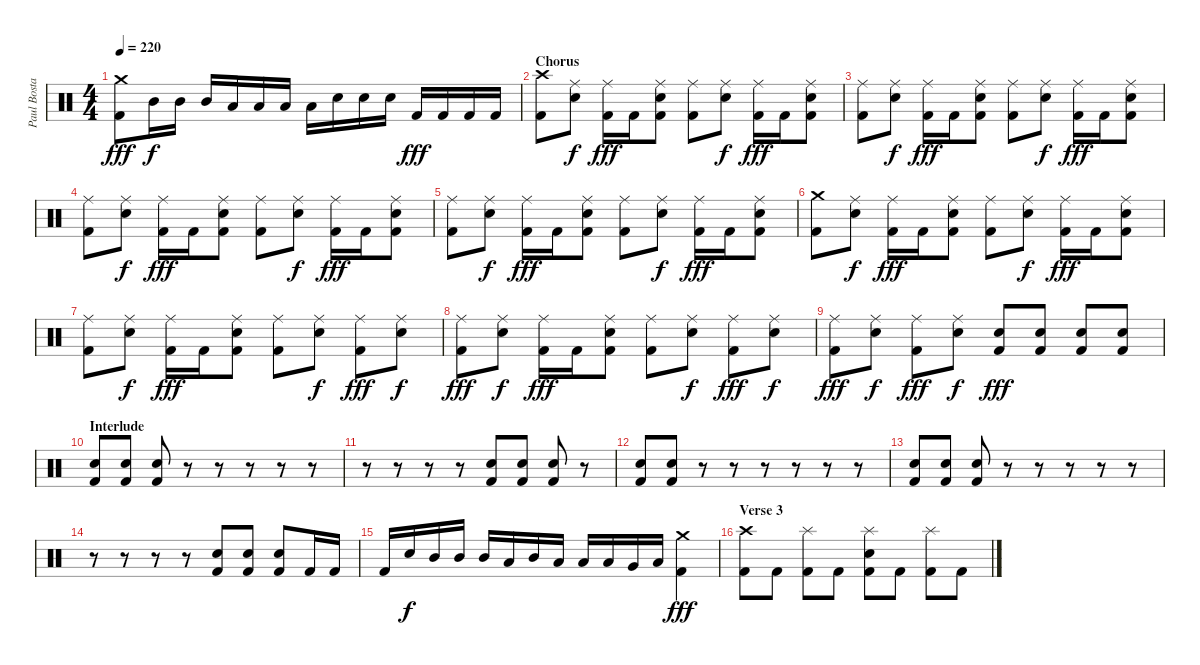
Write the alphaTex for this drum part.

\track ("Paul Bostaph" "Paul Bosta") {instrument percussion}
\staff {score}
\articulation defaults
\ts (4 4)
\tempo 220
\clef neutral
\ks c
("Crash medium (hit)" "Kick (hit) 2").8{dy fff} "Mid Tom (hit)".16{dy f} "Mid Tom (hit)".16 "Mid Tom (hit)".16 "Low Tom (hit)".16 "Low Tom (hit)".16 "Low Tom (hit)".16 "Low Tom (hit)".16 "Snare (hit) 2".16 "Snare (hit) 2".16 "Snare (hit) 2".16 "Kick (hit) 2".16{dy fff} "Kick (hit) 2".16 "Kick (hit) 2".16 "Kick (hit) 2".16 |
\section ("" "Chorus")
("Crash high (hit)" "Kick (hit) 2").8 ("Ride (middle)" "Snare (hit) 2").8{dy f} ("Ride (middle)" "Kick (hit) 2").16{dy fff} "Kick (hit) 2".16 ("Ride (middle)" "Snare (hit) 2" "Kick (hit) 2").8 ("Ride (middle)" "Kick (hit) 2").8 ("Ride (middle)" "Snare (hit) 2").8{dy f} ("Ride (middle)" "Kick (hit) 2").16{dy fff} "Kick (hit) 2".16 ("Ride (middle)" "Snare (hit) 2" "Kick (hit) 2").8 |
("Ride (middle)" "Kick (hit) 2").8 ("Ride (middle)" "Snare (hit) 2").8{dy f} ("Ride (middle)" "Kick (hit) 2").16{dy fff} "Kick (hit) 2".16 ("Ride (middle)" "Snare (hit) 2" "Kick (hit) 2").8 ("Ride (middle)" "Kick (hit) 2").8 ("Ride (middle)" "Snare (hit) 2").8{dy f} ("Ride (middle)" "Kick (hit) 2").16{dy fff} "Kick (hit) 2".16 ("Ride (middle)" "Snare (hit) 2" "Kick (hit) 2").8 |
("Ride (middle)" "Kick (hit) 2").8 ("Ride (middle)" "Snare (hit) 2").8{dy f} ("Ride (middle)" "Kick (hit) 2").16{dy fff} "Kick (hit) 2".16 ("Ride (middle)" "Snare (hit) 2" "Kick (hit) 2").8 ("Ride (middle)" "Kick (hit) 2").8 ("Ride (middle)" "Snare (hit) 2").8{dy f} ("Ride (middle)" "Kick (hit) 2").16{dy fff} "Kick (hit) 2".16 ("Ride (middle)" "Snare (hit) 2" "Kick (hit) 2").8 |
("Ride (middle)" "Kick (hit) 2").8 ("Ride (middle)" "Snare (hit) 2").8{dy f} ("Ride (middle)" "Kick (hit) 2").16{dy fff} "Kick (hit) 2".16 ("Ride (middle)" "Snare (hit) 2" "Kick (hit) 2").8 ("Ride (middle)" "Kick (hit) 2").8 ("Ride (middle)" "Snare (hit) 2").8{dy f} ("Ride (middle)" "Kick (hit) 2").16{dy fff} "Kick (hit) 2".16 ("Ride (middle)" "Snare (hit) 2" "Kick (hit) 2").8 |
("Crash medium (hit)" "Kick (hit) 2").8 ("Ride (middle)" "Snare (hit) 2").8{dy f} ("Ride (middle)" "Kick (hit) 2").16{dy fff} "Kick (hit) 2".16 ("Ride (middle)" "Snare (hit) 2" "Kick (hit) 2").8 ("Ride (middle)" "Kick (hit) 2").8 ("Ride (middle)" "Snare (hit) 2").8{dy f} ("Ride (middle)" "Kick (hit) 2").16{dy fff} "Kick (hit) 2".16 ("Ride (middle)" "Snare (hit) 2" "Kick (hit) 2").8 |
("Ride (middle)" "Kick (hit) 2").8 ("Ride (middle)" "Snare (hit) 2").8{dy f} ("Ride (middle)" "Kick (hit) 2").16{dy fff} "Kick (hit) 2".16 ("Ride (middle)" "Snare (hit) 2" "Kick (hit) 2").8 ("Ride (middle)" "Kick (hit) 2").8 ("Ride (middle)" "Snare (hit) 2").8{dy f} ("Ride (middle)" "Kick (hit) 2").8{dy fff} ("Ride (middle)" "Snare (hit) 2").8{dy f} |
("Ride (middle)" "Kick (hit) 2").8{dy fff} ("Ride (middle)" "Snare (hit) 2").8{dy f} ("Ride (middle)" "Kick (hit) 2").16{dy fff} "Kick (hit) 2".16 ("Ride (middle)" "Snare (hit) 2" "Kick (hit) 2").8 ("Ride (middle)" "Kick (hit) 2").8 ("Ride (middle)" "Snare (hit) 2").8{dy f} ("Ride (middle)" "Kick (hit) 2").8{dy fff} ("Ride (middle)" "Snare (hit) 2").8{dy f} |
("Ride (middle)" "Kick (hit) 2").8{dy fff} ("Ride (middle)" "Snare (hit) 2").8{dy f} ("Ride (middle)" "Kick (hit) 2").8{dy fff} ("Ride (middle)" "Snare (hit) 2").8{dy f} ("Snare (hit) 2" "Kick (hit) 2").8{dy fff} ("Snare (hit) 2" "Kick (hit) 2").8 ("Snare (hit) 2" "Kick (hit) 2").8 ("Snare (hit) 2" "Kick (hit) 2").8 |
\section ("" "Interlude")
("Snare (hit) 2" "Kick (hit) 2").8 ("Snare (hit) 2" "Kick (hit) 2").8 ("Snare (hit) 2" "Kick (hit) 2").8 r.8 r.8 r.8 r.8 r.8 |
r.8 r.8 r.8 r.8 ("Snare (hit) 2" "Kick (hit) 2").8 ("Snare (hit) 2" "Kick (hit) 2").8 ("Snare (hit) 2" "Kick (hit) 2").8 r.8 |
("Snare (hit) 2" "Kick (hit) 2").8 ("Snare (hit) 2" "Kick (hit) 2").8 r.8 r.8 r.8 r.8 r.8 r.8 |
("Snare (hit) 2" "Kick (hit) 2").8 ("Snare (hit) 2" "Kick (hit) 2").8 ("Snare (hit) 2" "Kick (hit) 2").8 r.8 r.8 r.8 r.8 r.8 |
r.8 r.8 r.8 r.8 ("Snare (hit) 2" "Kick (hit) 2").8 ("Snare (hit) 2" "Kick (hit) 2").8 ("Snare (hit) 2" "Kick (hit) 2").8 "Kick (hit) 2".16 "Kick (hit) 2".16 |
"Kick (hit) 2".16 "Snare (hit) 2".16{dy f} "Mid Tom (hit)".16 "Mid Tom (hit)".16 "Mid Tom (hit)".16 "Low Tom (hit)".16 "Mid Tom (hit)".16 "Low Tom (hit)".16 "Low Tom (hit)".16 "Low Tom (hit)".16 "Very Low Tom (hit)".16 "Low Tom (hit)".16 ("Crash medium (hit)" "Kick (hit) 2").4{dy fff} |
\section ("" "Verse 3")
("Crash high (hit)" "Kick (hit) 2").8 "Kick (hit) 2".8 ("Splash (hit)" "Kick (hit) 2").8 "Kick (hit) 2".8 ("Splash (hit)" "Snare (hit) 2" "Kick (hit) 2").8 "Kick (hit) 2".8 ("Splash (hit)" "Kick (hit) 2").8 "Kick (hit) 2".8
